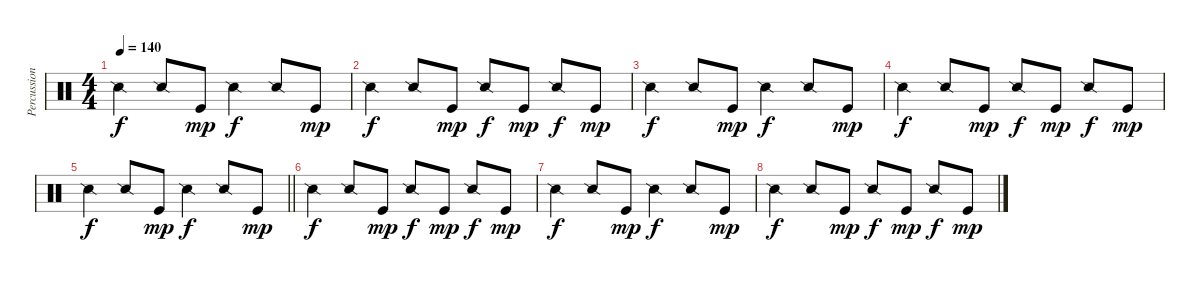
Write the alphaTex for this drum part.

\track ("Percussion" "Percussion") {instrument percussion}
\staff {score}
\articulation defaults
\ts (4 4)
\tempo 140
\clef neutral
\ks c "Snare (side stick) 2".4{dy f} "Snare (side stick) 2".8 "Kick (hit)".8{dy mp} "Snare (side stick) 2".4{dy f} "Snare (side stick) 2".8 "Kick (hit)".8{dy mp}
|
"Snare (side stick) 2".4{dy f} "Snare (side stick) 2".8 "Kick (hit)".8{dy mp} "Snare (side stick) 2".8{dy f} "Kick (hit)".8{dy mp} "Snare (side stick) 2".8{dy f} "Kick (hit)".8{dy mp} |
"Snare (side stick) 2".4{dy f} "Snare (side stick) 2".8 "Kick (hit)".8{dy mp} "Snare (side stick) 2".4{dy f} "Snare (side stick) 2".8 "Kick (hit)".8{dy mp} |
"Snare (side stick) 2".4{dy f} "Snare (side stick) 2".8 "Kick (hit)".8{dy mp} "Snare (side stick) 2".8{dy f} "Kick (hit)".8{dy mp} "Snare (side stick) 2".8{dy f} "Kick (hit)".8{dy mp} |
\barLineRight lightlight "Snare (side stick) 2".4{dy f} "Snare (side stick) 2".8 "Kick (hit)".8{dy mp} "Snare (side stick) 2".4{dy f} "Snare (side stick) 2".8 "Kick (hit)".8{dy mp}
|
"Snare (side stick) 2".4{dy f} "Snare (side stick) 2".8 "Kick (hit)".8{dy mp} "Snare (side stick) 2".8{dy f} "Kick (hit)".8{dy mp} "Snare (side stick) 2".8{dy f} "Kick (hit)".8{dy mp} |
"Snare (side stick) 2".4{dy f} "Snare (side stick) 2".8 "Kick (hit)".8{dy mp} "Snare (side stick) 2".4{dy f} "Snare (side stick) 2".8 "Kick (hit)".8{dy mp} |
"Snare (side stick) 2".4{dy f} "Snare (side stick) 2".8 "Kick (hit)".8{dy mp} "Snare (side stick) 2".8{dy f} "Kick (hit)".8{dy mp} "Snare (side stick) 2".8{dy f} "Kick (hit)".8{dy mp}
